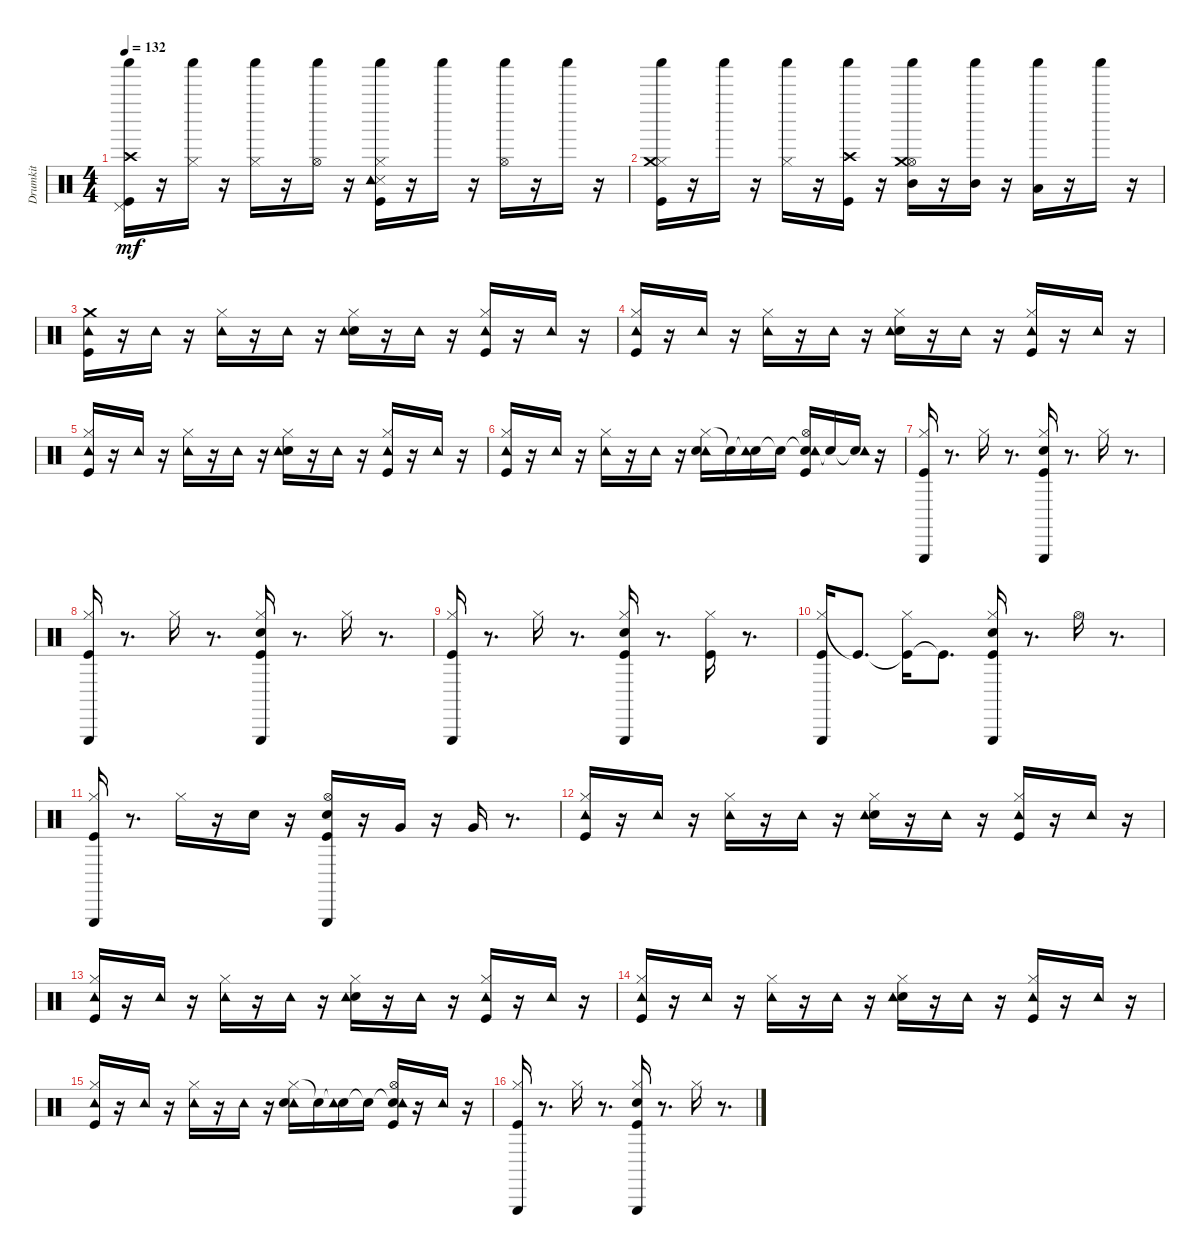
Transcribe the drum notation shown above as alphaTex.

\track ("Drumkit" "Drumkit") {instrument percussion}
\staff {score}
\articulation defaults
\ts (4 4)
\tempo 132
\clef neutral
\ks aminor
("Kick (hit)" "Pedal Hi-Hat (hit)" "Crash high (hit)" "Shaker (hit)").16{dy mf} r.16 ("Hi-Hat (closed)" "Shaker (hit)").16 r.16 ("Hi-Hat (closed)" "Shaker (hit)").16 r.16 ("Hi-Hat (open)" "Shaker (hit)").16 r.16 ("Kick (hit)" "Snare (side stick) 3" "Hi-Hat (closed)" "Tambourine (hit)" "Shaker (hit)").16 r.16 "Shaker (hit)".16 r.16 ("Hi-Hat (open)" "Shaker (hit)").16 r.16 "Shaker (hit)".16 r.16 |
("Kick (hit)" "Hi-Hat (closed)" "Crash medium (hit)" "Shaker (hit)").16 r.16 "Shaker (hit)".16 r.16 ("Hi-Hat (closed)" "Shaker (hit)").16 r.16 ("Kick (hit)" "Crash high (hit)" "Shaker (hit)").16 r.16 ("Hi-Hat (open)" "Mid Tom (hit)" "Crash medium (hit)" "Shaker (hit)").16 r.16 ("Mid Tom (hit)" "Shaker (hit)").16 r.16 ("Low Tom (hit)" "Shaker (hit)").16 r.16 "Shaker (hit)".16 r.16 |
("Kick (hit)" "Tambourine (hit)" "Crash medium (hit)").16 r.16 "Tambourine (hit)".16 r.16 ("Hi-Hat (closed)" "Tambourine (hit)").16 r.16 "Tambourine (hit)".16 r.16 ("Snare (hit) 2" "Hi-Hat (closed)" "Tambourine (hit)").16 r.16 "Tambourine (hit)".16 r.16 ("Kick (hit)" "Hi-Hat (closed)" "Tambourine (hit)").16 r.16 "Tambourine (hit)".16 r.16 |
("Kick (hit)" "Hi-Hat (closed)" "Tambourine (hit)").16 r.16 "Tambourine (hit)".16 r.16 ("Hi-Hat (closed)" "Tambourine (hit)").16 r.16 "Tambourine (hit)".16 r.16 ("Snare (hit) 2" "Hi-Hat (closed)" "Tambourine (hit)").16 r.16 "Tambourine (hit)".16 r.16 ("Kick (hit)" "Hi-Hat (closed)" "Tambourine (hit)").16 r.16 "Tambourine (hit)".16 r.16 |
("Kick (hit)" "Hi-Hat (closed)" "Tambourine (hit)").16 r.16 "Tambourine (hit)".16 r.16 ("Hi-Hat (closed)" "Tambourine (hit)").16 r.16 "Tambourine (hit)".16 r.16 ("Snare (hit) 2" "Hi-Hat (closed)" "Tambourine (hit)").16 r.16 "Tambourine (hit)".16 r.16 ("Kick (hit)" "Hi-Hat (closed)" "Tambourine (hit)").16 r.16 "Tambourine (hit)".16 r.16 |
("Kick (hit)" "Hi-Hat (closed)" "Tambourine (hit)").16 r.16 "Tambourine (hit)".16 r.16 ("Hi-Hat (closed)" "Tambourine (hit)").16 r.16 "Tambourine (hit)".16 r.16 ("Hi-Hat (closed)" "Tambourine (hit)" "Snare (hit) 2").16 "Snare (hit) 2"{t}.16 ("Snare (hit) 2"{t} "Tambourine (hit)").16 "Snare (hit) 2"{t}.16 ("Snare (hit) 2"{t} "Kick (hit)" "Hi-Hat (open)" "Tambourine (hit)").16 "Snare (hit) 2"{t}.16 ("Snare (hit) 2"{t} "Tambourine (hit)").16 r.16 |
("Kick (hit)" "Hi-Hat (closed)" "Triangle (hit)").16 r.8{d} "Hi-Hat (closed)".16 r.8{d} ("Kick (hit)" "Snare (hit) 2" "Hi-Hat (closed)" "Triangle (hit)").16 r.8{d} "Hi-Hat (closed)".16 r.8{d} |
("Kick (hit)" "Hi-Hat (closed)" "Triangle (hit)").16 r.8{d} "Hi-Hat (closed)".16 r.8{d} ("Kick (hit)" "Snare (hit) 2" "Hi-Hat (closed)" "Triangle (hit)").16 r.8{d} "Hi-Hat (closed)".16 r.8{d} |
("Kick (hit)" "Hi-Hat (closed)" "Triangle (hit)").16 r.8{d} "Hi-Hat (closed)".16 r.8{d} ("Kick (hit)" "Snare (hit) 2" "Hi-Hat (closed)" "Triangle (hit)").16 r.8{d} ("Kick (hit)" "Hi-Hat (closed)").16 r.8{d} |
("Hi-Hat (closed)" "Triangle (hit)" "Kick (hit)").16 "Kick (hit)"{t}.8{d} ("Kick (hit)"{t} "Hi-Hat (closed)").16 "Kick (hit)"{t}.8{d} ("Kick (hit)" "Snare (hit) 2" "Hi-Hat (closed)" "Triangle (hit)").16 r.8{d} "Hi-Hat (open)".16 r.8{d} |
("Kick (hit)" "Hi-Hat (closed)" "Triangle (hit)").16 r.8{d} "Hi-Hat (closed)".16 r.16 "Snare (hit) 2".16 r.16 ("Kick (hit)" "Snare (hit) 2" "Hi-Hat (open)" "Triangle (hit)").16 r.16 "Very Low Tom (hit)".16 r.16 "Very Low Tom (hit)".16 r.8{d} |
("Kick (hit)" "Hi-Hat (closed)" "Tambourine (hit)").16 r.16 "Tambourine (hit)".16 r.16 ("Hi-Hat (closed)" "Tambourine (hit)").16 r.16 "Tambourine (hit)".16 r.16 ("Snare (hit) 2" "Hi-Hat (closed)" "Tambourine (hit)").16 r.16 "Tambourine (hit)".16 r.16 ("Kick (hit)" "Hi-Hat (closed)" "Tambourine (hit)").16 r.16 "Tambourine (hit)".16 r.16 |
("Kick (hit)" "Hi-Hat (closed)" "Tambourine (hit)").16 r.16 "Tambourine (hit)".16 r.16 ("Hi-Hat (closed)" "Tambourine (hit)").16 r.16 "Tambourine (hit)".16 r.16 ("Snare (hit) 2" "Hi-Hat (closed)" "Tambourine (hit)").16 r.16 "Tambourine (hit)".16 r.16 ("Kick (hit)" "Hi-Hat (closed)" "Tambourine (hit)").16 r.16 "Tambourine (hit)".16 r.16 |
("Kick (hit)" "Hi-Hat (closed)" "Tambourine (hit)").16 r.16 "Tambourine (hit)".16 r.16 ("Hi-Hat (closed)" "Tambourine (hit)").16 r.16 "Tambourine (hit)".16 r.16 ("Snare (hit) 2" "Hi-Hat (closed)" "Tambourine (hit)").16 r.16 "Tambourine (hit)".16 r.16 ("Kick (hit)" "Hi-Hat (closed)" "Tambourine (hit)").16 r.16 "Tambourine (hit)".16 r.16 |
("Kick (hit)" "Hi-Hat (closed)" "Tambourine (hit)").16 r.16 "Tambourine (hit)".16 r.16 ("Hi-Hat (closed)" "Tambourine (hit)").16 r.16 "Tambourine (hit)".16 r.16 ("Hi-Hat (closed)" "Tambourine (hit)" "Snare (hit) 2").16 "Snare (hit) 2"{t}.16 ("Snare (hit) 2"{t} "Tambourine (hit)").16 "Snare (hit) 2"{t}.16 ("Snare (hit) 2"{t} "Kick (hit)" "Hi-Hat (open)" "Tambourine (hit)").16 r.16 "Tambourine (hit)".16 r.16 |
("Kick (hit)" "Hi-Hat (closed)" "Triangle (hit)").16 r.8{d} "Hi-Hat (closed)".16 r.8{d} ("Kick (hit)" "Snare (hit) 2" "Hi-Hat (closed)" "Triangle (hit)").16 r.8{d} "Hi-Hat (closed)".16 r.8{d}
